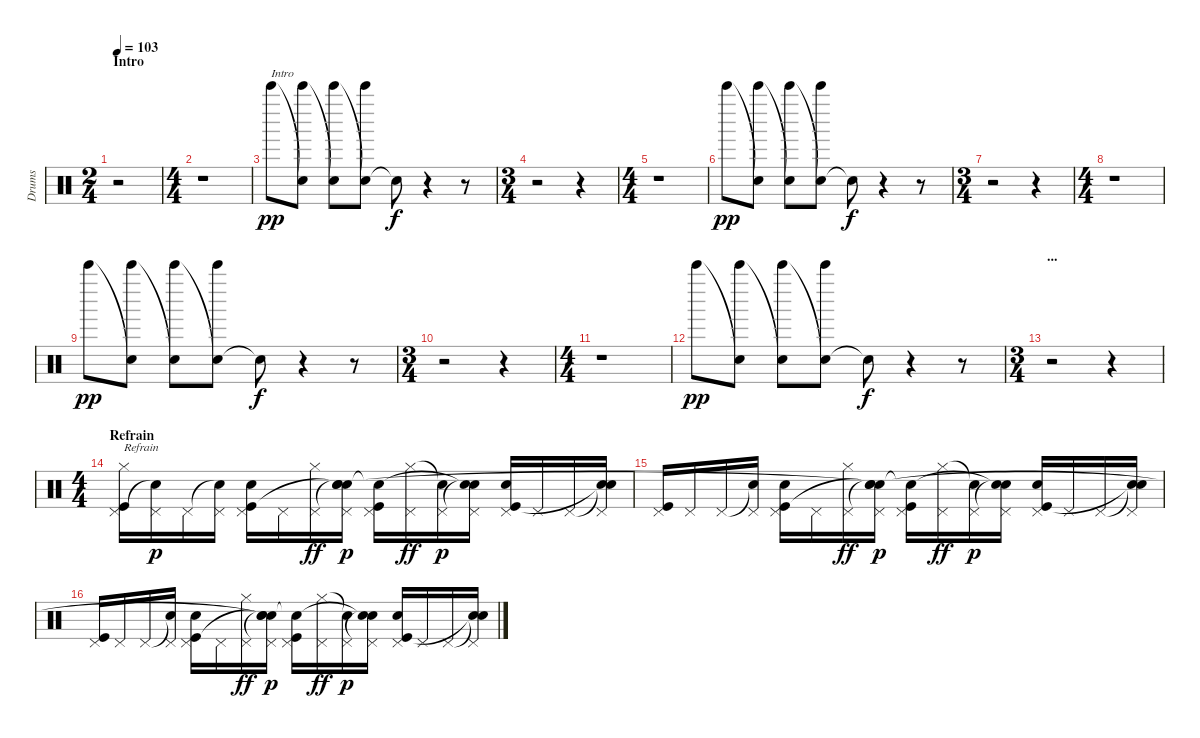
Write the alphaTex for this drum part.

\track ("Drums" "Drums") {instrument percussion}
\staff {score}
\articulation defaults
\ts (2 4)
\section ("" "Intro")
\tempo 103
\clef neutral
\ks c
r.2{dy pp} |
\ts (4 4)
r.1 |
"Bell Tree (hit)".8{txt "Intro"} ("Snare (hit)"{t} "Bell Tree (hit)").8 ("Bell Tree (hit)" "Snare (hit)"{t}).8 ("Snare (hit)"{t} "Bell Tree (hit)").8 "Snare (hit)"{t}.8{dy f} r.4 r.8 |
\ts (3 4)
r.2 r.4 |
\ts (4 4)
r.1 |
"Bell Tree (hit)".8{dy pp} ("Snare (hit)"{t} "Bell Tree (hit)").8 ("Bell Tree (hit)" "Snare (hit)"{t}).8 ("Snare (hit)"{t} "Bell Tree (hit)").8 "Snare (hit)"{t}.8{dy f} r.4 r.8 |
\ts (3 4)
r.2 r.4 |
\ts (4 4)
r.1 |
"Bell Tree (hit)".8{dy pp} ("Snare (hit)"{t} "Bell Tree (hit)").8 ("Bell Tree (hit)" "Snare (hit)"{t}).8 ("Snare (hit)"{t} "Bell Tree (hit)").8 "Snare (hit)"{t}.8{dy f} r.4 r.8 |
\ts (3 4)
r.2 r.4 |
\ts (4 4)
r.1 |
"Bell Tree (hit)".8{dy pp} ("Snare (hit)"{t} "Bell Tree (hit)").8 ("Bell Tree (hit)" "Snare (hit)"{t}).8 ("Snare (hit)"{t} "Bell Tree (hit)").8 "Snare (hit)"{t}.8{dy f} r.4 r.8 |
\ts (3 4)
\section ("" "...")
r.2 r.4 |
\ts (4 4)
\section ("" "Refrain")
("Kick (hit)" "Pedal Hi-Hat (hit)" "Hi-Hat (closed)").16{txt "Refrain" volume 12} ("Pedal Hi-Hat (hit)" "Snare (hit)"{t}).16{dy p} "Pedal Hi-Hat (hit)".16 ("Electric Snare (hit)"{t} "Pedal Hi-Hat (hit)").16 ("Electric Snare (hit)" "Pedal Hi-Hat (hit)" "Kick (hit)").16 "Pedal Hi-Hat (hit)".16 ("Pedal Hi-Hat (hit)" "Hi-Hat (closed)").16{dy ff} ("Snare (hit)"{t} "Pedal Hi-Hat (hit)" "Snare (hit)"{t} "Snare (hit)").16{dy p} ("Kick (hit)" "Pedal Hi-Hat (hit)" "Snare (hit)"{t}).16 ("Pedal Hi-Hat (hit)" "Hi-Hat (closed)").16{dy ff} ("Pedal Hi-Hat (hit)" "Snare (hit)"{t}).16{dy p} ("Snare (hit)"{t} "Pedal Hi-Hat (hit)" "Snare (hit)"{t}).16 ("Electric Snare (hit)" "Pedal Hi-Hat (hit)" "Kick (hit)").16 "Pedal Hi-Hat (hit)".16 "Pedal Hi-Hat (hit)".16 ("Snare (hit)"{t} "Pedal Hi-Hat (hit)" "Snare (hit)"{t}).16 |
("Kick (hit)" "Pedal Hi-Hat (hit)").16 "Pedal Hi-Hat (hit)".16 "Pedal Hi-Hat (hit)".16 ("Electric Snare (hit)"{t} "Pedal Hi-Hat (hit)").16 ("Electric Snare (hit)" "Pedal Hi-Hat (hit)" "Kick (hit)").16 "Pedal Hi-Hat (hit)".16 ("Pedal Hi-Hat (hit)" "Hi-Hat (closed)").16{dy ff} ("Snare (hit)"{t} "Pedal Hi-Hat (hit)" "Snare (hit)"{t} "Snare (hit)"{t}).16{dy p} ("Kick (hit)" "Pedal Hi-Hat (hit)" "Snare (hit)"{t}).16 ("Pedal Hi-Hat (hit)" "Hi-Hat (closed)").16{dy ff} ("Pedal Hi-Hat (hit)" "Snare (hit)"{t}).16{dy p} ("Snare (hit)"{t} "Pedal Hi-Hat (hit)" "Snare (hit)"{t}).16 ("Electric Snare (hit)" "Pedal Hi-Hat (hit)" "Kick (hit)").16 "Pedal Hi-Hat (hit)".16 "Pedal Hi-Hat (hit)".16 ("Snare (hit)"{t} "Pedal Hi-Hat (hit)" "Snare (hit)"{t}).16 |
("Kick (hit)" "Pedal Hi-Hat (hit)").16 "Pedal Hi-Hat (hit)".16 "Pedal Hi-Hat (hit)".16 ("Electric Snare (hit)"{t} "Pedal Hi-Hat (hit)").16 ("Electric Snare (hit)" "Pedal Hi-Hat (hit)" "Kick (hit)").16 "Pedal Hi-Hat (hit)".16 ("Pedal Hi-Hat (hit)" "Hi-Hat (closed)").16{dy ff} ("Snare (hit)"{t} "Pedal Hi-Hat (hit)" "Snare (hit)"{t} "Snare (hit)"{t}).16{dy p} ("Kick (hit)" "Pedal Hi-Hat (hit)" "Snare (hit)"{t}).16 ("Pedal Hi-Hat (hit)" "Hi-Hat (closed)").16{dy ff} ("Pedal Hi-Hat (hit)" "Snare (hit)"{t}).16{dy p} ("Snare (hit)"{t} "Pedal Hi-Hat (hit)" "Snare (hit)"{t}).16 ("Electric Snare (hit)" "Pedal Hi-Hat (hit)" "Kick (hit)").16 "Pedal Hi-Hat (hit)".16 "Pedal Hi-Hat (hit)".16 ("Snare (hit)"{t} "Pedal Hi-Hat (hit)" "Snare (hit)"{t}).16
